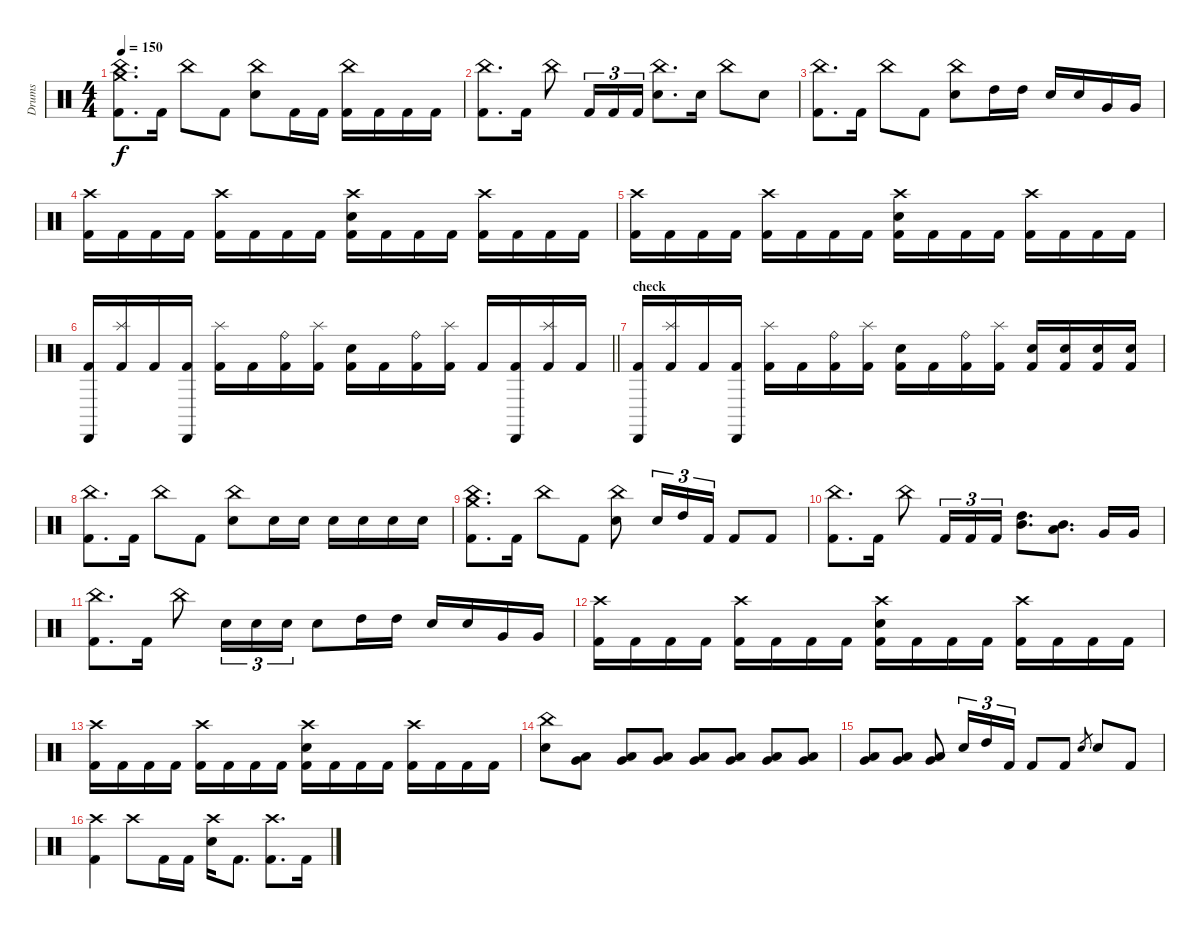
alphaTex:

\track ("Drums" "Drums") {instrument percussion}
\staff {score}
\articulation defaults
\ts (4 4)
\tempo 150
\clef neutral
\ks c
("China (hit)" "Crash medium (hit)" "Kick (hit) 2").8{d dy f} "Kick (hit) 2".16 "China (hit)".8 "Kick (hit) 2".8 ("China (hit)" "Snare (hit) 2").8 "Kick (hit) 2".16 "Kick (hit) 2".16 ("China (hit)" "Kick (hit) 2").16 "Kick (hit) 2".16 "Kick (hit) 2".16 "Kick (hit) 2".16 |
("China (hit)" "Kick (hit) 2").8{d} "Kick (hit) 2".16 "China (hit)".8 "Kick (hit) 2".16{tu (3 2)} "Kick (hit) 2".16{tu (3 2)} "Kick (hit) 2".16{tu (3 2)} ("China (hit)" "Snare (hit) 2").8{d} "Snare (hit) 2".16 "China (hit)".8 "Snare (hit) 2".8 |
("China (hit)" "Kick (hit) 2").8{d} "Kick (hit) 2".16 "China (hit)".8 "Kick (hit) 2".8 ("China (hit)" "Snare (hit) 2").8 "High Tom (hit)".16 "High Tom (hit)".16 "Snare (hit) 2".16 "Snare (hit) 2".16 "Very Low Tom (hit)".16 "Very Low Tom (hit)".16 |
("Crash high (hit)" "Kick (hit) 2").16 "Kick (hit) 2".16 "Kick (hit) 2".16 "Kick (hit) 2".16 ("Crash high (hit)" "Kick (hit) 2").16 "Kick (hit) 2".16 "Kick (hit) 2".16 "Kick (hit) 2".16 ("Crash high (hit)" "Snare (hit) 2" "Kick (hit) 2").16 "Kick (hit) 2".16 "Kick (hit) 2".16 "Kick (hit) 2".16 ("Crash high (hit)" "Kick (hit) 2").16 "Kick (hit) 2".16 "Kick (hit) 2".16 "Kick (hit) 2".16 |
("Crash high (hit)" "Kick (hit) 2").16 "Kick (hit) 2".16 "Kick (hit) 2".16 "Kick (hit) 2".16 ("Crash high (hit)" "Kick (hit) 2").16 "Kick (hit) 2".16 "Kick (hit) 2".16 "Kick (hit) 2".16 ("Crash high (hit)" "Snare (hit) 2" "Kick (hit) 2").16 "Kick (hit) 2".16 "Kick (hit) 2".16 "Kick (hit) 2".16 ("Crash high (hit)" "Kick (hit) 2").16 "Kick (hit) 2".16 "Kick (hit) 2".16 "Kick (hit) 2".16 |
\barLineRight lightlight
("Cabasa (hit)" "Kick (hit) 2").16 ("Splash (hit)" "Kick (hit) 2").16 "Kick (hit) 2".16 ("Cabasa (hit)" "Kick (hit) 2").16 ("Splash (hit)" "Kick (hit) 2").16 "Kick (hit) 2".16 ("Ride (bell)" "Kick (hit) 2").16 ("Splash (hit)" "Kick (hit) 2").16 ("Snare (hit) 2" "Kick (hit) 2").16 "Kick (hit) 2".16 ("Ride (bell)" "Kick (hit) 2").16 ("Splash (hit)" "Kick (hit) 2").16 "Kick (hit) 2".16 ("Cabasa (hit)" "Kick (hit) 2").16 ("Splash (hit)" "Kick (hit) 2").16 "Kick (hit) 2".16 |
\section ("" "check")
("Cabasa (hit)" "Kick (hit) 2").16 ("Splash (hit)" "Kick (hit) 2").16 "Kick (hit) 2".16 ("Cabasa (hit)" "Kick (hit) 2").16 ("Splash (hit)" "Kick (hit) 2").16 "Kick (hit) 2".16 ("Ride (bell)" "Kick (hit) 2").16 ("Splash (hit)" "Kick (hit) 2").16 ("Snare (hit) 2" "Kick (hit) 2").16 "Kick (hit) 2".16 ("Ride (bell)" "Kick (hit) 2").16 ("Splash (hit)" "Kick (hit) 2").16 ("Snare (hit) 2" "Kick (hit) 2").16 ("Snare (hit) 2" "Kick (hit) 2").16 ("Snare (hit) 2" "Kick (hit) 2").16 ("Snare (hit) 2" "Kick (hit) 2").16 |
("China (hit)" "Kick (hit) 2").8{d} "Kick (hit) 2".16 "China (hit)".8 "Kick (hit) 2".8 ("China (hit)" "Snare (hit) 2").8 "Snare (hit) 2".16 "Snare (hit) 2".16 "Snare (hit) 2".16 "Snare (hit) 2".16 "Snare (hit) 2".16 "Snare (hit) 2".16 |
("China (hit)" "Crash medium (hit)" "Kick (hit) 2").8{d} "Kick (hit) 2".16 "China (hit)".8 "Kick (hit) 2".8 ("China (hit)" "Snare (hit) 2").8 "Snare (hit) 2".16{tu (3 2)} "High Tom (hit)".16{tu (3 2)} "Kick (hit) 2".16{tu (3 2)} "Kick (hit) 2".8 "Kick (hit) 2".8 |
("China (hit)" "Kick (hit) 2").8{d} "Kick (hit) 2".16 "China (hit)".8 "Kick (hit) 2".16{tu (3 2)} "Kick (hit) 2".16{tu (3 2)} "Kick (hit) 2".16{tu (3 2)} ("High Tom (hit)" "Mid Tom (hit)").8{d} ("Mid Tom (hit)" "Low Tom (hit)").8{d} "Very Low Tom (hit)".16 "Very Low Tom (hit)".16 |
("China (hit)" "Kick (hit) 2").8{d} "Kick (hit) 2".16 "China (hit)".8 "Snare (hit) 2".16{tu (3 2)} "Snare (hit) 2".16{tu (3 2)} "Snare (hit) 2".16{tu (3 2)} "Snare (hit) 2".8 "High Tom (hit)".16 "High Tom (hit)".16 "Snare (hit) 2".16 "Snare (hit) 2".16 "Very Low Tom (hit)".16 "Very Low Tom (hit)".16 |
("Crash high (hit)" "Kick (hit) 2").16 "Kick (hit) 2".16 "Kick (hit) 2".16 "Kick (hit) 2".16 ("Crash high (hit)" "Kick (hit) 2").16 "Kick (hit) 2".16 "Kick (hit) 2".16 "Kick (hit) 2".16 ("Crash high (hit)" "Snare (hit) 2" "Kick (hit) 2").16 "Kick (hit) 2".16 "Kick (hit) 2".16 "Kick (hit) 2".16 ("Crash high (hit)" "Kick (hit) 2").16 "Kick (hit) 2".16 "Kick (hit) 2".16 "Kick (hit) 2".16 |
("Crash high (hit)" "Kick (hit) 2").16 "Kick (hit) 2".16 "Kick (hit) 2".16 "Kick (hit) 2".16 ("Crash high (hit)" "Kick (hit) 2").16 "Kick (hit) 2".16 "Kick (hit) 2".16 "Kick (hit) 2".16 ("Crash high (hit)" "Snare (hit) 2" "Kick (hit) 2").16 "Kick (hit) 2".16 "Kick (hit) 2".16 "Kick (hit) 2".16 ("Crash high (hit)" "Kick (hit) 2").16 "Kick (hit) 2".16 "Kick (hit) 2".16 "Kick (hit) 2".16 |
("China (hit)" "Snare (hit) 2").8 ("Low Tom (hit)" "Very Low Tom (hit)").8{volume 7} ("Low Tom (hit)" "Very Low Tom (hit)").8{volume 13} ("Low Tom (hit)" "Very Low Tom (hit)").8 ("Low Tom (hit)" "Very Low Tom (hit)").8 ("Low Tom (hit)" "Very Low Tom (hit)").8 ("Low Tom (hit)" "Very Low Tom (hit)").8 ("Low Tom (hit)" "Very Low Tom (hit)").8 |
("Low Tom (hit)" "Very Low Tom (hit)").8 ("Low Tom (hit)" "Very Low Tom (hit)").8 ("Low Tom (hit)" "Very Low Tom (hit)").8 "Snare (hit) 2".16{tu (3 2)} "High Tom (hit)".16{tu (3 2)} "Kick (hit) 2".16{tu (3 2)} "Kick (hit) 2".8 "Kick (hit) 2".8 "Snare (hit) 2".8{gr} "Snare (hit) 2".8 "Kick (hit) 2".8 |
("Crash high (hit)" "Kick (hit) 2").4 "Crash high (hit)".8 "Kick (hit) 2".16 "Kick (hit) 2".16 ("Crash high (hit)" "Snare (hit) 2").16 "Kick (hit) 2".8{d} ("Crash high (hit)" "Kick (hit) 2").8{d} "Kick (hit) 2".16
